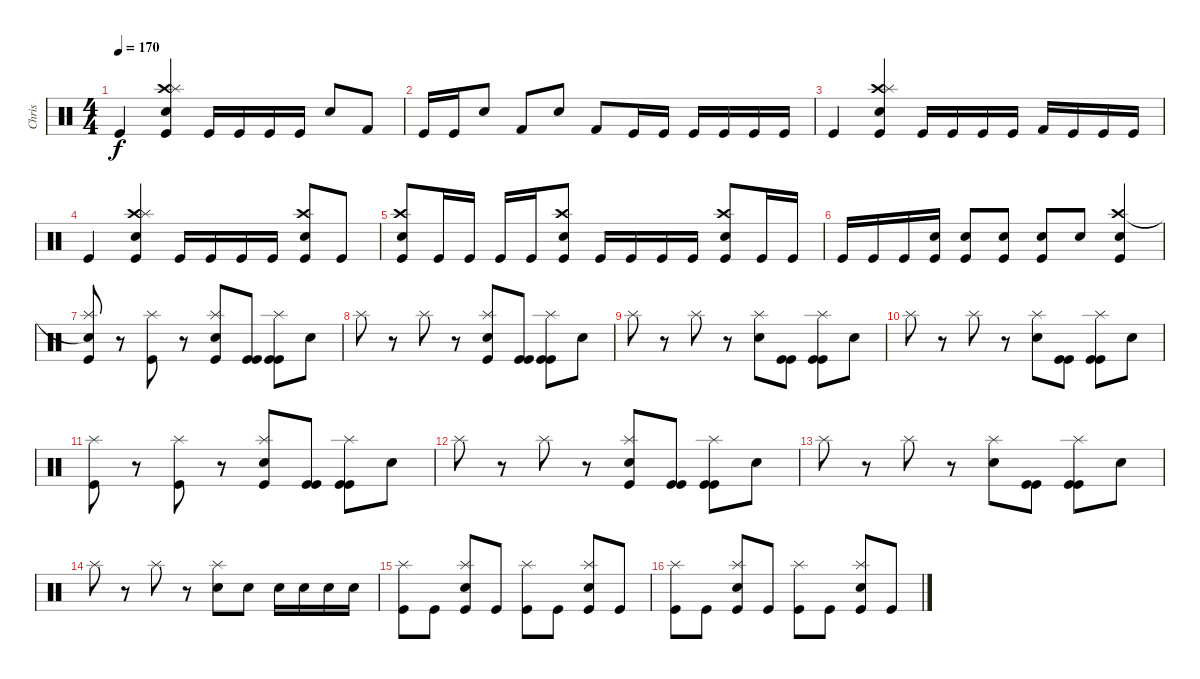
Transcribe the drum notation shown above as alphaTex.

\track ("Chris" "Chris") {instrument percussion}
\staff {score}
\articulation defaults
\ts (4 4)
\tempo 170
\clef neutral
\ks c "Kick (hit)".4{dy f}
("Kick (hit)" "Crash high (hit)" "Splash (hit)" "Snare (hit) 2").4 "Kick (hit)".16 "Kick (hit)".16 "Kick (hit)".16 "Kick (hit)".16 "Snare (hit) 2".8 "Kick (hit) 2".8 |
"Kick (hit)".16 "Kick (hit)".16 "Snare (hit) 2".8 "Kick (hit) 2".8 "Snare (hit) 2".8 "Kick (hit) 2".8 "Kick (hit)".16 "Kick (hit)".16 "Kick (hit)".16 "Kick (hit)".16 "Kick (hit)".16 "Kick (hit)".16 |
"Kick (hit)".4 ("Kick (hit)" "Crash high (hit)" "Splash (hit)" "Snare (hit) 2").4 "Kick (hit)".16 "Kick (hit)".16 "Kick (hit)".16 "Kick (hit)".16 "Kick (hit) 2".16 "Kick (hit)".16 "Kick (hit)".16 "Kick (hit)".16 |
"Kick (hit)".4 ("Kick (hit)" "Crash high (hit)" "Splash (hit)" "Snare (hit) 2").4 "Kick (hit)".16 "Kick (hit)".16 "Kick (hit)".16 "Kick (hit)".16 ("Kick (hit)" "Crash high (hit)" "Snare (hit) 2").8 "Kick (hit)".8 |
("Kick (hit)" "Crash high (hit)" "Snare (hit) 2").8 "Kick (hit)".16 "Kick (hit)".16 "Kick (hit)".16 "Kick (hit)".16 ("Kick (hit)" "Crash high (hit)" "Snare (hit) 2").8 "Kick (hit)".16 "Kick (hit)".16 "Kick (hit)".16 "Kick (hit)".16 ("Kick (hit)" "Crash high (hit)" "Snare (hit) 2").8 "Kick (hit)".16 "Kick (hit)".16 |
"Kick (hit)".16 "Kick (hit)".16 "Kick (hit)".16 ("Kick (hit)" "Snare (hit) 2").16 ("Kick (hit)" "Snare (hit) 2").8 ("Kick (hit)" "Electric Snare (hit)").8 ("Kick (hit)" "Electric Snare (hit)").8 "Snare (hit) 2".8 ("Kick (hit)" "Snare (hit) 2" "Crash high (hit)").4 |
("Kick (hit)" "Splash (hit)" "Snare (hit)"{t}).8 r.8 ("Kick (hit)" "Splash (hit)").8 r.8 ("Kick (hit)" "Splash (hit)" "Snare (hit) 2").8 ("Kick (hit)" "Kick (hit)").8 ("Kick (hit)" "Splash (hit)" "Kick (hit)").8 "Snare (hit) 2".8 |
"Splash (hit)".8 r.8 "Splash (hit)".8 r.8 ("Kick (hit)" "Splash (hit)" "Snare (hit) 2").8 ("Kick (hit)" "Kick (hit)").8 ("Kick (hit)" "Splash (hit)" "Kick (hit)").8 "Snare (hit) 2".8 |
"Splash (hit)".8 r.8 "Splash (hit)".8 r.8 ("Splash (hit)" "Snare (hit) 2").8 ("Kick (hit)" "Kick (hit)").8 ("Kick (hit)" "Splash (hit)" "Kick (hit)").8 "Snare (hit) 2".8 |
"Splash (hit)".8 r.8 "Splash (hit)".8 r.8 ("Splash (hit)" "Snare (hit) 2").8 ("Kick (hit)" "Kick (hit)").8 ("Kick (hit)" "Splash (hit)" "Kick (hit)").8 "Snare (hit) 2".8 |
("Kick (hit)" "Splash (hit)").8 r.8 ("Kick (hit)" "Splash (hit)").8 r.8 ("Kick (hit)" "Splash (hit)" "Snare (hit) 2").8 ("Kick (hit)" "Kick (hit)").8 ("Kick (hit)" "Splash (hit)" "Kick (hit)").8 "Snare (hit) 2".8 |
"Splash (hit)".8 r.8 "Splash (hit)".8 r.8 ("Kick (hit)" "Splash (hit)" "Snare (hit) 2").8 ("Kick (hit)" "Kick (hit)").8 ("Kick (hit)" "Splash (hit)" "Kick (hit)").8 "Snare (hit) 2".8 |
"Splash (hit)".8 r.8 "Splash (hit)".8 r.8 ("Splash (hit)" "Snare (hit) 2").8 ("Kick (hit)" "Kick (hit)").8 ("Kick (hit)" "Splash (hit)" "Kick (hit)").8 "Snare (hit) 2".8 |
"Splash (hit)".8 r.8 "Splash (hit)".8 r.8 ("Splash (hit)" "Snare (hit) 2").8 "Snare (hit) 2".8 "Electric Snare (hit)".16 "Electric Snare (hit)".16 "Electric Snare (hit)".16 "Electric Snare (hit)".16 |
("Kick (hit)" "Splash (hit)").8 "Kick (hit)".8 ("Kick (hit)" "Splash (hit)" "Snare (hit) 2").8 "Kick (hit)".8 ("Kick (hit)" "Splash (hit)").8 "Kick (hit)".8 ("Kick (hit)" "Splash (hit)" "Snare (hit) 2").8 "Kick (hit)".8 |
("Kick (hit)" "Splash (hit)").8 "Kick (hit)".8 ("Kick (hit)" "Splash (hit)" "Snare (hit) 2").8 "Kick (hit)".8 ("Kick (hit)" "Splash (hit)").8 "Kick (hit)".8 ("Kick (hit)" "Splash (hit)" "Snare (hit) 2").8 "Kick (hit)".8
